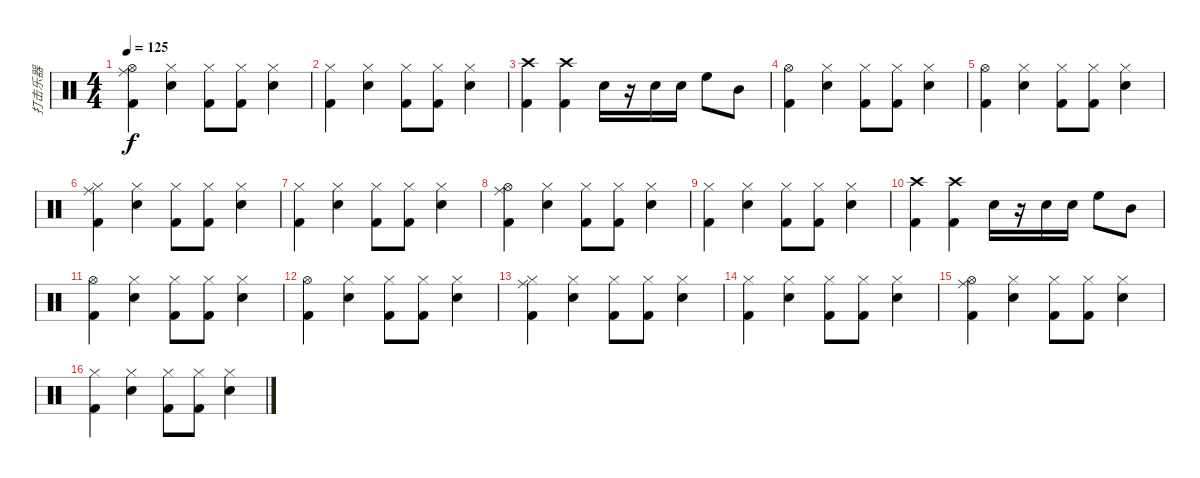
\track ("打击乐器" "打击乐器") {instrument percussion}
\staff {score}
\articulation defaults
\ts (4 4)
\tempo 125
\clef neutral
\ks c
("Ride (middle)" "Hi-Hat (open)" "Kick (hit) 2").4{dy f} ("Hi-Hat (closed)" "Snare (hit) 2").4 ("Hi-Hat (closed)" "Kick (hit) 2").8 ("Hi-Hat (closed)" "Kick (hit) 2").8 ("Hi-Hat (closed)" "Snare (hit) 2").4 |
("Hi-Hat (closed)" "Kick (hit) 2").4 ("Hi-Hat (closed)" "Snare (hit) 2").4 ("Hi-Hat (closed)" "Kick (hit) 2").8 ("Hi-Hat (closed)" "Kick (hit) 2").8 ("Hi-Hat (closed)" "Snare (hit) 2").4 |
("Kick (hit) 2" "Crash high (hit)").4 ("Crash high (hit)" "Kick (hit) 2").4 "Snare (hit) 2".16 r.16 "Snare (hit) 2".16 "Snare (hit) 2".16 "High Floor Tom (hit)".8 "Mid Tom (hit)".8 |
("Hi-Hat (open)" "Kick (hit) 2").4 ("Hi-Hat (closed)" "Snare (hit) 2").4 ("Hi-Hat (closed)" "Kick (hit) 2").8 ("Hi-Hat (closed)" "Kick (hit) 2").8 ("Hi-Hat (closed)" "Snare (hit) 2").4 |
("Hi-Hat (open)" "Kick (hit) 2").4 ("Hi-Hat (closed)" "Snare (hit) 2").4 ("Hi-Hat (closed)" "Kick (hit) 2").8 ("Hi-Hat (closed)" "Kick (hit) 2").8 ("Hi-Hat (closed)" "Snare (hit) 2").4 |
("Ride (middle)" "Hi-Hat (closed)" "Kick (hit) 2").4 ("Hi-Hat (closed)" "Snare (hit) 2").4 ("Hi-Hat (closed)" "Kick (hit) 2").8 ("Hi-Hat (closed)" "Kick (hit) 2").8 ("Hi-Hat (closed)" "Snare (hit) 2").4 |
("Hi-Hat (closed)" "Kick (hit) 2").4 ("Hi-Hat (closed)" "Snare (hit) 2").4 ("Hi-Hat (closed)" "Kick (hit) 2").8 ("Hi-Hat (closed)" "Kick (hit) 2").8 ("Hi-Hat (closed)" "Snare (hit) 2").4 |
("Ride (middle)" "Hi-Hat (open)" "Kick (hit) 2").4 ("Hi-Hat (closed)" "Snare (hit) 2").4 ("Hi-Hat (closed)" "Kick (hit) 2").8 ("Hi-Hat (closed)" "Kick (hit) 2").8 ("Hi-Hat (closed)" "Snare (hit) 2").4 |
("Hi-Hat (closed)" "Kick (hit) 2").4 ("Hi-Hat (closed)" "Snare (hit) 2").4 ("Hi-Hat (closed)" "Kick (hit) 2").8 ("Hi-Hat (closed)" "Kick (hit) 2").8 ("Hi-Hat (closed)" "Snare (hit) 2").4 |
("Kick (hit) 2" "Crash high (hit)").4 ("Crash high (hit)" "Kick (hit) 2").4 "Snare (hit) 2".16 r.16 "Snare (hit) 2".16 "Snare (hit) 2".16 "High Floor Tom (hit)".8 "Mid Tom (hit)".8 |
("Hi-Hat (open)" "Kick (hit) 2").4 ("Hi-Hat (closed)" "Snare (hit) 2").4 ("Hi-Hat (closed)" "Kick (hit) 2").8 ("Hi-Hat (closed)" "Kick (hit) 2").8 ("Hi-Hat (closed)" "Snare (hit) 2").4 |
("Hi-Hat (open)" "Kick (hit) 2").4 ("Hi-Hat (closed)" "Snare (hit) 2").4 ("Hi-Hat (closed)" "Kick (hit) 2").8 ("Hi-Hat (closed)" "Kick (hit) 2").8 ("Hi-Hat (closed)" "Snare (hit) 2").4 |
("Ride (middle)" "Hi-Hat (closed)" "Kick (hit) 2").4 ("Hi-Hat (closed)" "Snare (hit) 2").4 ("Hi-Hat (closed)" "Kick (hit) 2").8 ("Hi-Hat (closed)" "Kick (hit) 2").8 ("Hi-Hat (closed)" "Snare (hit) 2").4 |
("Hi-Hat (closed)" "Kick (hit) 2").4 ("Hi-Hat (closed)" "Snare (hit) 2").4 ("Hi-Hat (closed)" "Kick (hit) 2").8 ("Hi-Hat (closed)" "Kick (hit) 2").8 ("Hi-Hat (closed)" "Snare (hit) 2").4 |
("Ride (middle)" "Hi-Hat (open)" "Kick (hit) 2").4 ("Hi-Hat (closed)" "Snare (hit) 2").4 ("Hi-Hat (closed)" "Kick (hit) 2").8 ("Hi-Hat (closed)" "Kick (hit) 2").8 ("Hi-Hat (closed)" "Snare (hit) 2").4 |
("Hi-Hat (closed)" "Kick (hit) 2").4 ("Hi-Hat (closed)" "Snare (hit) 2").4 ("Hi-Hat (closed)" "Kick (hit) 2").8 ("Hi-Hat (closed)" "Kick (hit) 2").8 ("Hi-Hat (closed)" "Snare (hit) 2").4
